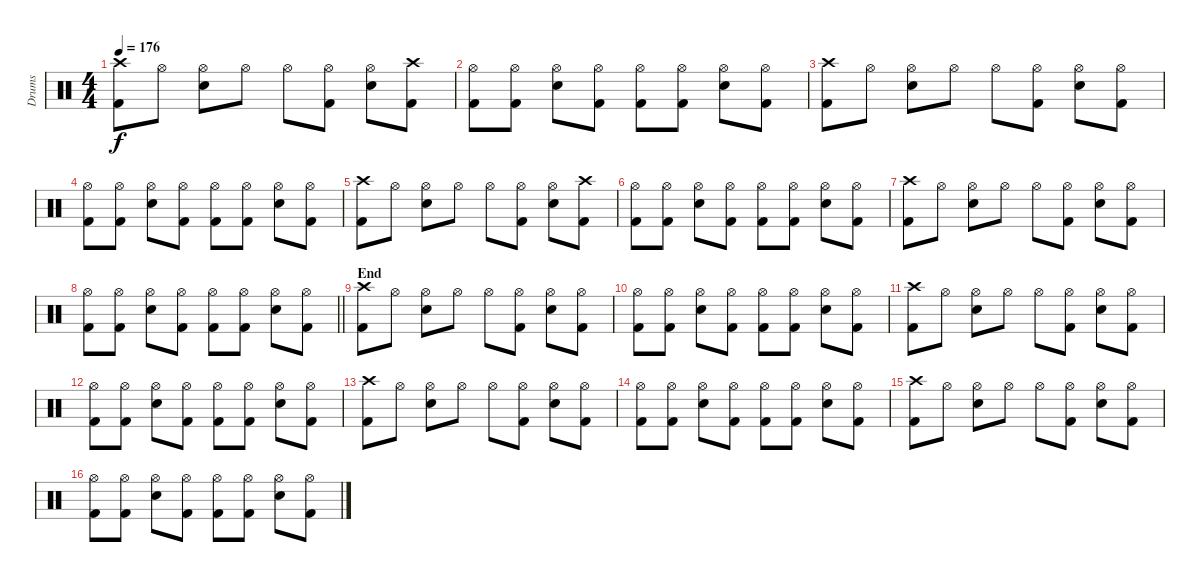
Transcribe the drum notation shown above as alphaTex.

\track ("Drums" "Drums") {instrument percussion}
\staff {score}
\articulation defaults
\ts (4 4)
\tempo 176
\clef neutral
\ks c
("Crash high (hit)" "Kick (hit) 2").8{dy f} "Hi-Hat (open)".8 ("Hi-Hat (open)" "Electric Snare (hit)").8 "Hi-Hat (open)".8 "Hi-Hat (open)".8 ("Hi-Hat (open)" "Kick (hit) 2").8 ("Hi-Hat (open)" "Electric Snare (hit)").8 ("Crash high (hit)" "Kick (hit) 2").8 |
("Hi-Hat (open)" "Kick (hit) 2").8 ("Hi-Hat (open)" "Kick (hit) 2").8 ("Hi-Hat (open)" "Electric Snare (hit)").8 ("Hi-Hat (open)" "Kick (hit) 2").8 ("Hi-Hat (open)" "Kick (hit) 2").8 ("Hi-Hat (open)" "Kick (hit) 2").8 ("Hi-Hat (open)" "Electric Snare (hit)").8 ("Hi-Hat (open)" "Kick (hit) 2").8 |
("Crash high (hit)" "Kick (hit) 2").8 "Hi-Hat (open)".8 ("Hi-Hat (open)" "Electric Snare (hit)").8 "Hi-Hat (open)".8 "Hi-Hat (open)".8 ("Hi-Hat (open)" "Kick (hit) 2").8 ("Hi-Hat (open)" "Electric Snare (hit)").8 ("Hi-Hat (open)" "Kick (hit) 2").8 |
("Hi-Hat (open)" "Kick (hit) 2").8 ("Hi-Hat (open)" "Kick (hit) 2").8 ("Hi-Hat (open)" "Electric Snare (hit)").8 ("Hi-Hat (open)" "Kick (hit) 2").8 ("Hi-Hat (open)" "Kick (hit) 2").8 ("Hi-Hat (open)" "Kick (hit) 2").8 ("Hi-Hat (open)" "Electric Snare (hit)").8 ("Hi-Hat (open)" "Kick (hit) 2").8 |
("Crash high (hit)" "Kick (hit) 2").8 "Hi-Hat (open)".8 ("Hi-Hat (open)" "Electric Snare (hit)").8 "Hi-Hat (open)".8 "Hi-Hat (open)".8 ("Hi-Hat (open)" "Kick (hit) 2").8 ("Hi-Hat (open)" "Electric Snare (hit)").8 ("Crash high (hit)" "Kick (hit) 2").8 |
("Hi-Hat (open)" "Kick (hit) 2").8 ("Hi-Hat (open)" "Kick (hit) 2").8 ("Hi-Hat (open)" "Electric Snare (hit)").8 ("Hi-Hat (open)" "Kick (hit) 2").8 ("Hi-Hat (open)" "Kick (hit) 2").8 ("Hi-Hat (open)" "Kick (hit) 2").8 ("Hi-Hat (open)" "Electric Snare (hit)").8 ("Hi-Hat (open)" "Kick (hit) 2").8 |
("Crash high (hit)" "Kick (hit) 2").8 "Hi-Hat (open)".8 ("Hi-Hat (open)" "Electric Snare (hit)").8 "Hi-Hat (open)".8 "Hi-Hat (open)".8 ("Hi-Hat (open)" "Kick (hit) 2").8 ("Hi-Hat (open)" "Electric Snare (hit)").8 ("Hi-Hat (open)" "Kick (hit) 2").8 |
\barLineRight lightlight
("Hi-Hat (open)" "Kick (hit) 2").8 ("Hi-Hat (open)" "Kick (hit) 2").8 ("Hi-Hat (open)" "Electric Snare (hit)").8 ("Hi-Hat (open)" "Kick (hit) 2").8 ("Hi-Hat (open)" "Kick (hit) 2").8 ("Hi-Hat (open)" "Kick (hit) 2").8 ("Hi-Hat (open)" "Electric Snare (hit)").8 ("Hi-Hat (open)" "Kick (hit) 2").8 |
\section ("" "End")
("Crash high (hit)" "Kick (hit) 2").8 "Hi-Hat (open)".8 ("Hi-Hat (open)" "Electric Snare (hit)").8 "Hi-Hat (open)".8 "Hi-Hat (open)".8 ("Hi-Hat (open)" "Kick (hit) 2").8 ("Hi-Hat (open)" "Electric Snare (hit)").8 ("Hi-Hat (open)" "Kick (hit) 2").8 |
("Hi-Hat (open)" "Kick (hit) 2").8 ("Hi-Hat (open)" "Kick (hit) 2").8 ("Hi-Hat (open)" "Electric Snare (hit)").8 ("Hi-Hat (open)" "Kick (hit) 2").8 ("Hi-Hat (open)" "Kick (hit) 2").8 ("Hi-Hat (open)" "Kick (hit) 2").8 ("Hi-Hat (open)" "Electric Snare (hit)").8 ("Hi-Hat (open)" "Kick (hit) 2").8 |
("Crash high (hit)" "Kick (hit) 2").8 "Hi-Hat (open)".8 ("Hi-Hat (open)" "Electric Snare (hit)").8 "Hi-Hat (open)".8 "Hi-Hat (open)".8 ("Hi-Hat (open)" "Kick (hit) 2").8 ("Hi-Hat (open)" "Electric Snare (hit)").8 ("Hi-Hat (open)" "Kick (hit) 2").8 |
("Hi-Hat (open)" "Kick (hit) 2").8 ("Hi-Hat (open)" "Kick (hit) 2").8 ("Hi-Hat (open)" "Electric Snare (hit)").8 ("Hi-Hat (open)" "Kick (hit) 2").8 ("Hi-Hat (open)" "Kick (hit) 2").8 ("Hi-Hat (open)" "Kick (hit) 2").8 ("Hi-Hat (open)" "Electric Snare (hit)").8 ("Hi-Hat (open)" "Kick (hit) 2").8 |
("Crash high (hit)" "Kick (hit) 2").8 "Hi-Hat (open)".8 ("Hi-Hat (open)" "Electric Snare (hit)").8 "Hi-Hat (open)".8 "Hi-Hat (open)".8 ("Hi-Hat (open)" "Kick (hit) 2").8 ("Hi-Hat (open)" "Electric Snare (hit)").8 ("Hi-Hat (open)" "Kick (hit) 2").8 |
("Hi-Hat (open)" "Kick (hit) 2").8 ("Hi-Hat (open)" "Kick (hit) 2").8 ("Hi-Hat (open)" "Electric Snare (hit)").8 ("Hi-Hat (open)" "Kick (hit) 2").8 ("Hi-Hat (open)" "Kick (hit) 2").8 ("Hi-Hat (open)" "Kick (hit) 2").8 ("Hi-Hat (open)" "Electric Snare (hit)").8 ("Hi-Hat (open)" "Kick (hit) 2").8 |
("Crash high (hit)" "Kick (hit) 2").8 "Hi-Hat (open)".8 ("Hi-Hat (open)" "Electric Snare (hit)").8 "Hi-Hat (open)".8 "Hi-Hat (open)".8 ("Hi-Hat (open)" "Kick (hit) 2").8 ("Hi-Hat (open)" "Electric Snare (hit)").8 ("Hi-Hat (open)" "Kick (hit) 2").8 |
("Hi-Hat (open)" "Kick (hit) 2").8 ("Hi-Hat (open)" "Kick (hit) 2").8 ("Hi-Hat (open)" "Electric Snare (hit)").8 ("Hi-Hat (open)" "Kick (hit) 2").8 ("Hi-Hat (open)" "Kick (hit) 2").8 ("Hi-Hat (open)" "Kick (hit) 2").8 ("Hi-Hat (open)" "Electric Snare (hit)").8 ("Hi-Hat (open)" "Kick (hit) 2").8
